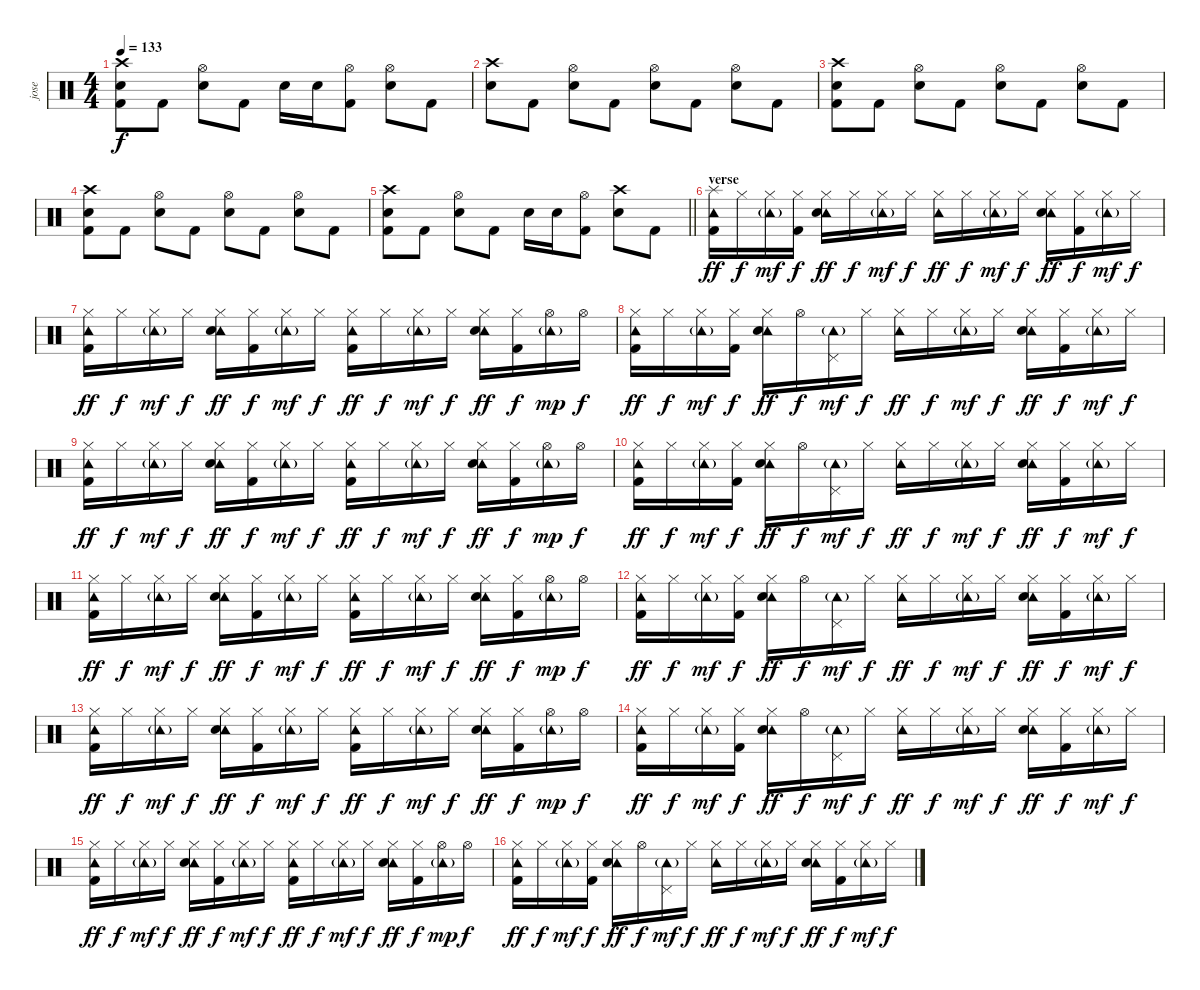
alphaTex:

\track ("jose" "jose") {instrument percussion}
\staff {score}
\articulation defaults
\ts (4 4)
\tempo 133
\clef neutral
\ks c
("Crash high (hit)" "Snare (hit) 2" "Kick (hit) 2").8{dy f} "Kick (hit) 2".8 ("Hi-Hat (open)" "Snare (hit) 2").8 "Kick (hit) 2".8 "Snare (hit) 2".16 "Snare (hit) 2".16 ("Hi-Hat (open)" "Kick (hit) 2").8 ("Hi-Hat (open)" "Snare (hit) 2").8 "Kick (hit) 2".8 |
("Crash high (hit)" "Snare (hit) 2").8 "Kick (hit) 2".8 ("Hi-Hat (open)" "Snare (hit) 2").8 "Kick (hit) 2".8 ("Hi-Hat (open)" "Snare (hit) 2").8 "Kick (hit) 2".8 ("Hi-Hat (open)" "Snare (hit) 2").8 "Kick (hit) 2".8 |
("Crash high (hit)" "Snare (hit) 2" "Kick (hit) 2").8 "Kick (hit) 2".8 ("Hi-Hat (open)" "Snare (hit) 2").8 "Kick (hit) 2".8 ("Hi-Hat (open)" "Snare (hit) 2").8 "Kick (hit) 2".8 ("Hi-Hat (open)" "Snare (hit) 2").8 "Kick (hit) 2".8 |
("Crash high (hit)" "Snare (hit) 2" "Kick (hit) 2").8 "Kick (hit) 2".8 ("Hi-Hat (open)" "Snare (hit) 2").8 "Kick (hit) 2".8 ("Hi-Hat (open)" "Snare (hit) 2").8 "Kick (hit) 2".8 ("Hi-Hat (open)" "Snare (hit) 2").8 "Kick (hit) 2".8 |
\barLineRight lightlight
("Crash high (hit)" "Snare (hit) 2" "Kick (hit) 2").8 "Kick (hit) 2".8 ("Hi-Hat (open)" "Snare (hit) 2").8 "Kick (hit) 2".8 "Snare (hit) 2".16 "Snare (hit) 2".16 ("Hi-Hat (open)" "Kick (hit) 2").8 ("Crash high (hit)" "Snare (hit) 2").8 "Kick (hit) 2".8 |
\section ("" "verse")
("Tambourine (hit)" "Splash (hit)" "Kick (hit) 2").16{dy ff} "Hi-Hat (closed)".16{dy f} ("Tambourine (hit)"{g} "Hi-Hat (closed)").16{dy mf} ("Hi-Hat (closed)" "Kick (hit) 2").16{dy f} ("Tambourine (hit)" "Hi-Hat (closed)" "Snare (hit) 2").16{dy ff} "Hi-Hat (closed)".16{dy f} ("Tambourine (hit)"{g} "Hi-Hat (closed)").16{dy mf} "Hi-Hat (closed)".16{dy f} ("Tambourine (hit)" "Hi-Hat (closed)").16{dy ff} "Hi-Hat (closed)".16{dy f} ("Tambourine (hit)"{g} "Hi-Hat (closed)").16{dy mf} "Hi-Hat (closed)".16{dy f} ("Tambourine (hit)" "Hi-Hat (closed)" "Snare (hit) 2").16{dy ff} ("Hi-Hat (closed)" "Kick (hit) 2").16{dy f} ("Tambourine (hit)"{g} "Hi-Hat (closed)").16{dy mf} "Hi-Hat (closed)".16{dy f} |
("Tambourine (hit)" "Hi-Hat (closed)" "Kick (hit) 2").16{dy ff} "Hi-Hat (closed)".16{dy f} ("Tambourine (hit)"{g} "Hi-Hat (closed)").16{dy mf} "Hi-Hat (closed)".16{dy f} ("Tambourine (hit)" "Hi-Hat (closed)" "Snare (hit) 2").16{dy ff} ("Hi-Hat (closed)" "Kick (hit) 2").16{dy f} ("Tambourine (hit)"{g} "Hi-Hat (closed)").16{dy mf} "Hi-Hat (closed)".16{dy f} ("Tambourine (hit)" "Hi-Hat (closed)" "Kick (hit) 2").16{dy ff} "Hi-Hat (closed)".16{dy f} ("Tambourine (hit)"{g} "Hi-Hat (closed)").16{dy mf} "Hi-Hat (closed)".16{dy f} ("Tambourine (hit)" "Hi-Hat (closed)" "Snare (hit) 2").16{dy ff} ("Hi-Hat (closed)" "Kick (hit) 2").16{dy f} ("Tambourine (hit)"{g} "Hi-Hat (open)").16{dy mp} "Hi-Hat (open)".16{dy f} |
("Tambourine (hit)" "Hi-Hat (closed)" "Kick (hit) 2").16{dy ff} "Hi-Hat (closed)".16{dy f} ("Tambourine (hit)"{g} "Hi-Hat (closed)").16{dy mf} ("Hi-Hat (closed)" "Kick (hit) 2").16{dy f} ("Tambourine (hit)" "Hi-Hat (closed)" "Snare (hit) 2").16{dy ff} "Hi-Hat (open)".16{dy f} ("Tambourine (hit)"{g} "Pedal Hi-Hat (hit)").16{dy mf} "Hi-Hat (closed)".16{dy f} ("Tambourine (hit)" "Hi-Hat (closed)").16{dy ff} "Hi-Hat (closed)".16{dy f} ("Tambourine (hit)"{g} "Hi-Hat (closed)").16{dy mf} "Hi-Hat (closed)".16{dy f} ("Tambourine (hit)" "Hi-Hat (closed)" "Snare (hit) 2").16{dy ff} ("Hi-Hat (closed)" "Kick (hit) 2").16{dy f} ("Tambourine (hit)"{g} "Hi-Hat (closed)").16{dy mf} "Hi-Hat (closed)".16{dy f} |
("Tambourine (hit)" "Hi-Hat (closed)" "Kick (hit) 2").16{dy ff} "Hi-Hat (closed)".16{dy f} ("Tambourine (hit)"{g} "Hi-Hat (closed)").16{dy mf} "Hi-Hat (closed)".16{dy f} ("Tambourine (hit)" "Hi-Hat (closed)" "Snare (hit) 2").16{dy ff} ("Hi-Hat (closed)" "Kick (hit) 2").16{dy f} ("Tambourine (hit)"{g} "Hi-Hat (closed)").16{dy mf} "Hi-Hat (closed)".16{dy f} ("Tambourine (hit)" "Hi-Hat (closed)" "Kick (hit) 2").16{dy ff} "Hi-Hat (closed)".16{dy f} ("Tambourine (hit)"{g} "Hi-Hat (closed)").16{dy mf} "Hi-Hat (closed)".16{dy f} ("Tambourine (hit)" "Hi-Hat (closed)" "Snare (hit) 2").16{dy ff} ("Hi-Hat (closed)" "Kick (hit) 2").16{dy f} ("Tambourine (hit)"{g} "Hi-Hat (open)").16{dy mp} "Hi-Hat (open)".16{dy f} |
("Tambourine (hit)" "Hi-Hat (closed)" "Kick (hit) 2").16{dy ff} "Hi-Hat (closed)".16{dy f} ("Tambourine (hit)"{g} "Hi-Hat (closed)").16{dy mf} ("Hi-Hat (closed)" "Kick (hit) 2").16{dy f} ("Tambourine (hit)" "Hi-Hat (closed)" "Snare (hit) 2").16{dy ff} "Hi-Hat (open)".16{dy f} ("Tambourine (hit)"{g} "Pedal Hi-Hat (hit)").16{dy mf} "Hi-Hat (closed)".16{dy f} ("Tambourine (hit)" "Hi-Hat (closed)").16{dy ff} "Hi-Hat (closed)".16{dy f} ("Tambourine (hit)"{g} "Hi-Hat (closed)").16{dy mf} "Hi-Hat (closed)".16{dy f} ("Tambourine (hit)" "Hi-Hat (closed)" "Snare (hit) 2").16{dy ff} ("Hi-Hat (closed)" "Kick (hit) 2").16{dy f} ("Tambourine (hit)"{g} "Hi-Hat (closed)").16{dy mf} "Hi-Hat (closed)".16{dy f} |
("Tambourine (hit)" "Hi-Hat (closed)" "Kick (hit) 2").16{dy ff} "Hi-Hat (closed)".16{dy f} ("Tambourine (hit)"{g} "Hi-Hat (closed)").16{dy mf} "Hi-Hat (closed)".16{dy f} ("Tambourine (hit)" "Hi-Hat (closed)" "Snare (hit) 2").16{dy ff} ("Hi-Hat (closed)" "Kick (hit) 2").16{dy f} ("Tambourine (hit)"{g} "Hi-Hat (closed)").16{dy mf} "Hi-Hat (closed)".16{dy f} ("Tambourine (hit)" "Hi-Hat (closed)" "Kick (hit) 2").16{dy ff} "Hi-Hat (closed)".16{dy f} ("Tambourine (hit)"{g} "Hi-Hat (closed)").16{dy mf} "Hi-Hat (closed)".16{dy f} ("Tambourine (hit)" "Hi-Hat (closed)" "Snare (hit) 2").16{dy ff} ("Hi-Hat (closed)" "Kick (hit) 2").16{dy f} ("Tambourine (hit)"{g} "Hi-Hat (open)").16{dy mp} "Hi-Hat (open)".16{dy f} |
("Tambourine (hit)" "Hi-Hat (closed)" "Kick (hit) 2").16{dy ff} "Hi-Hat (closed)".16{dy f} ("Tambourine (hit)"{g} "Hi-Hat (closed)").16{dy mf} ("Hi-Hat (closed)" "Kick (hit) 2").16{dy f} ("Tambourine (hit)" "Hi-Hat (closed)" "Snare (hit) 2").16{dy ff} "Hi-Hat (open)".16{dy f} ("Tambourine (hit)"{g} "Pedal Hi-Hat (hit)").16{dy mf} "Hi-Hat (closed)".16{dy f} ("Tambourine (hit)" "Hi-Hat (closed)").16{dy ff} "Hi-Hat (closed)".16{dy f} ("Tambourine (hit)"{g} "Hi-Hat (closed)").16{dy mf} "Hi-Hat (closed)".16{dy f} ("Tambourine (hit)" "Hi-Hat (closed)" "Snare (hit) 2").16{dy ff} ("Hi-Hat (closed)" "Kick (hit) 2").16{dy f} ("Tambourine (hit)"{g} "Hi-Hat (closed)").16{dy mf} "Hi-Hat (closed)".16{dy f} |
("Tambourine (hit)" "Hi-Hat (closed)" "Kick (hit) 2").16{dy ff} "Hi-Hat (closed)".16{dy f} ("Tambourine (hit)"{g} "Hi-Hat (closed)").16{dy mf} "Hi-Hat (closed)".16{dy f} ("Tambourine (hit)" "Hi-Hat (closed)" "Snare (hit) 2").16{dy ff} ("Hi-Hat (closed)" "Kick (hit) 2").16{dy f} ("Tambourine (hit)"{g} "Hi-Hat (closed)").16{dy mf} "Hi-Hat (closed)".16{dy f} ("Tambourine (hit)" "Hi-Hat (closed)" "Kick (hit) 2").16{dy ff} "Hi-Hat (closed)".16{dy f} ("Tambourine (hit)"{g} "Hi-Hat (closed)").16{dy mf} "Hi-Hat (closed)".16{dy f} ("Tambourine (hit)" "Hi-Hat (closed)" "Snare (hit) 2").16{dy ff} ("Hi-Hat (closed)" "Kick (hit) 2").16{dy f} ("Tambourine (hit)"{g} "Hi-Hat (open)").16{dy mp} "Hi-Hat (open)".16{dy f} |
("Tambourine (hit)" "Hi-Hat (closed)" "Kick (hit) 2").16{dy ff} "Hi-Hat (closed)".16{dy f} ("Tambourine (hit)"{g} "Hi-Hat (closed)").16{dy mf} ("Hi-Hat (closed)" "Kick (hit) 2").16{dy f} ("Tambourine (hit)" "Hi-Hat (closed)" "Snare (hit) 2").16{dy ff} "Hi-Hat (open)".16{dy f} ("Tambourine (hit)"{g} "Pedal Hi-Hat (hit)").16{dy mf} "Hi-Hat (closed)".16{dy f} ("Tambourine (hit)" "Hi-Hat (closed)").16{dy ff} "Hi-Hat (closed)".16{dy f} ("Tambourine (hit)"{g} "Hi-Hat (closed)").16{dy mf} "Hi-Hat (closed)".16{dy f} ("Tambourine (hit)" "Hi-Hat (closed)" "Snare (hit) 2").16{dy ff} ("Hi-Hat (closed)" "Kick (hit) 2").16{dy f} ("Tambourine (hit)"{g} "Hi-Hat (closed)").16{dy mf} "Hi-Hat (closed)".16{dy f} |
("Tambourine (hit)" "Hi-Hat (closed)" "Kick (hit) 2").16{dy ff} "Hi-Hat (closed)".16{dy f} ("Tambourine (hit)"{g} "Hi-Hat (closed)").16{dy mf} "Hi-Hat (closed)".16{dy f} ("Tambourine (hit)" "Hi-Hat (closed)" "Snare (hit) 2").16{dy ff} ("Hi-Hat (closed)" "Kick (hit) 2").16{dy f} ("Tambourine (hit)"{g} "Hi-Hat (closed)").16{dy mf} "Hi-Hat (closed)".16{dy f} ("Tambourine (hit)" "Hi-Hat (closed)" "Kick (hit) 2").16{dy ff} "Hi-Hat (closed)".16{dy f} ("Tambourine (hit)"{g} "Hi-Hat (closed)").16{dy mf} "Hi-Hat (closed)".16{dy f} ("Tambourine (hit)" "Hi-Hat (closed)" "Snare (hit) 2").16{dy ff} ("Hi-Hat (closed)" "Kick (hit) 2").16{dy f} ("Tambourine (hit)"{g} "Hi-Hat (open)").16{dy mp} "Hi-Hat (open)".16{dy f} |
("Tambourine (hit)" "Hi-Hat (closed)" "Kick (hit) 2").16{dy ff} "Hi-Hat (closed)".16{dy f} ("Tambourine (hit)"{g} "Hi-Hat (closed)").16{dy mf} ("Hi-Hat (closed)" "Kick (hit) 2").16{dy f} ("Tambourine (hit)" "Hi-Hat (closed)" "Snare (hit) 2").16{dy ff} "Hi-Hat (open)".16{dy f} ("Tambourine (hit)"{g} "Pedal Hi-Hat (hit)").16{dy mf} "Hi-Hat (closed)".16{dy f} ("Tambourine (hit)" "Hi-Hat (closed)").16{dy ff} "Hi-Hat (closed)".16{dy f} ("Tambourine (hit)"{g} "Hi-Hat (closed)").16{dy mf} "Hi-Hat (closed)".16{dy f} ("Tambourine (hit)" "Hi-Hat (closed)" "Snare (hit) 2").16{dy ff} ("Hi-Hat (closed)" "Kick (hit) 2").16{dy f} ("Tambourine (hit)"{g} "Hi-Hat (closed)").16{dy mf} "Hi-Hat (closed)".16{dy f}
